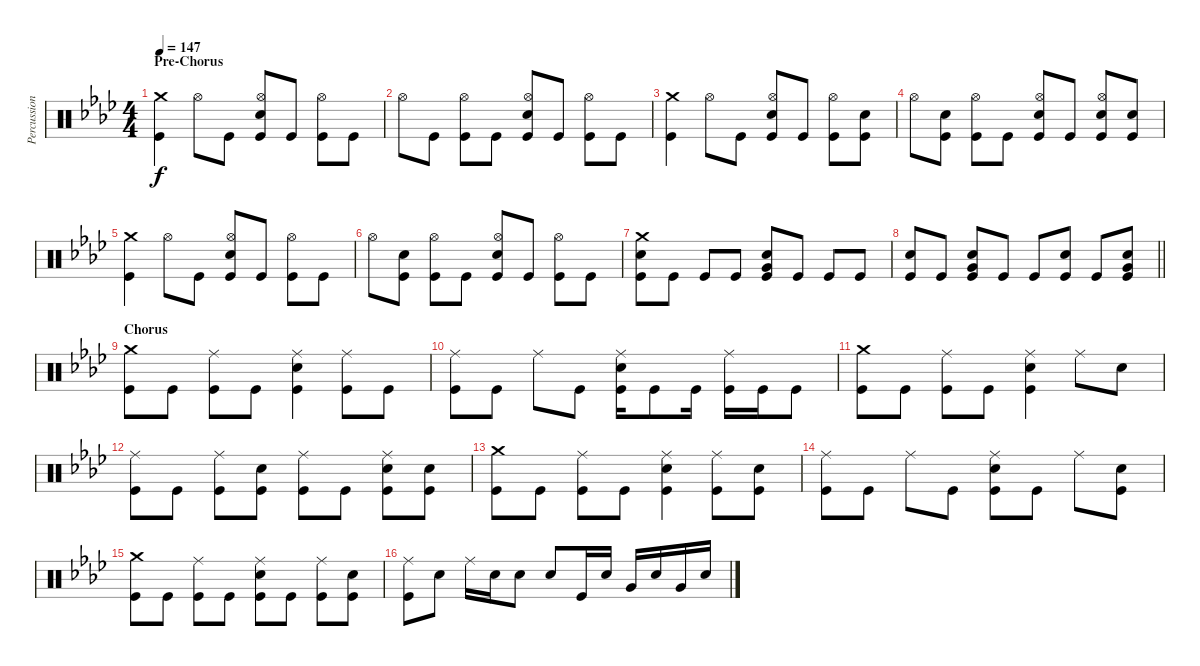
\track ("Percussion" "Percussion") {instrument percussion}
\staff {score}
\articulation defaults
\ts (4 4)
\section ("" "Pre-Chorus")
\tempo 147
\clef neutral
\ks ab
("Crash medium (hit)" "Kick (hit)").4{dy f} "Hi-Hat (open)".8 "Kick (hit)".8 ("Hi-Hat (open)" "Electric Snare (hit)" "Kick (hit)").8 "Kick (hit)".8 ("Hi-Hat (open)" "Kick (hit)").8 "Kick (hit)".8 |
"Hi-Hat (open)".8 "Kick (hit)".8 ("Hi-Hat (open)" "Kick (hit)").8 "Kick (hit)".8 ("Hi-Hat (open)" "Electric Snare (hit)" "Kick (hit)").8 "Kick (hit)".8 ("Hi-Hat (open)" "Kick (hit)").8 "Kick (hit)".8 |
("Crash medium (hit)" "Kick (hit)").4 "Hi-Hat (open)".8 "Kick (hit)".8 ("Hi-Hat (open)" "Electric Snare (hit)" "Kick (hit)").8 "Kick (hit)".8 ("Hi-Hat (open)" "Kick (hit)").8 ("Electric Snare (hit)" "Kick (hit)").8 |
"Hi-Hat (open)".8 ("Electric Snare (hit)" "Kick (hit)").8 ("Hi-Hat (open)" "Kick (hit)").8 "Kick (hit)".8 ("Hi-Hat (open)" "Electric Snare (hit)" "Kick (hit)").8 "Kick (hit)".8 ("Hi-Hat (open)" "Electric Snare (hit)" "Kick (hit)").8 ("Electric Snare (hit)" "Kick (hit)").8 |
("Crash medium (hit)" "Kick (hit)").4 "Hi-Hat (open)".8 "Kick (hit)".8 ("Hi-Hat (open)" "Electric Snare (hit)" "Kick (hit)").8 "Kick (hit)".8 ("Hi-Hat (open)" "Kick (hit)").8 "Kick (hit)".8 |
"Hi-Hat (open)".8 ("Electric Snare (hit)" "Kick (hit)").8 ("Hi-Hat (open)" "Kick (hit)").8 "Kick (hit)".8 ("Hi-Hat (open)" "Electric Snare (hit)" "Kick (hit)").8 "Kick (hit)".8 ("Hi-Hat (open)" "Kick (hit)").8 "Kick (hit)".8 |
("Crash medium (hit)" "Electric Snare (hit)" "Kick (hit)").8 "Kick (hit)".8 "Kick (hit)".8 "Kick (hit)".8 ("Very Low Tom (hit)" "Electric Snare (hit)" "Kick (hit)").8 "Kick (hit)".8 "Kick (hit)".8 "Kick (hit)".8 |
\barLineRight lightlight
("Electric Snare (hit)" "Kick (hit)").8 "Kick (hit)".8 ("Very Low Tom (hit)" "Electric Snare (hit)" "Kick (hit)").8 "Kick (hit)".8 "Kick (hit)".8 ("Electric Snare (hit)" "Kick (hit)").8 "Kick (hit)".8 ("Very Low Tom (hit)" "Electric Snare (hit)" "Kick (hit)").8 |
\section ("" "Chorus")
("Crash medium (hit)" "Kick (hit)").8 "Kick (hit)".8 ("Ride (middle)" "Kick (hit)").8 "Kick (hit)".8 ("Ride (middle)" "Electric Snare (hit)" "Kick (hit)").4 ("Ride (middle)" "Kick (hit)").8 "Kick (hit)".8 |
("Ride (middle)" "Kick (hit)").8 "Kick (hit)".8 "Ride (middle)".8 "Kick (hit)".8 ("Ride (middle)" "Electric Snare (hit)" "Kick (hit)").16 "Kick (hit)".8 "Kick (hit)".16 ("Ride (middle)" "Kick (hit)").16 "Kick (hit)".16 "Kick (hit)".8 |
("Crash medium (hit)" "Kick (hit)").8 "Kick (hit)".8 ("Ride (middle)" "Kick (hit)").8 "Kick (hit)".8 ("Ride (middle)" "Electric Snare (hit)" "Kick (hit)").4 "Ride (middle)".8 "Electric Snare (hit)".8 |
("Ride (middle)" "Kick (hit)").8 "Kick (hit)".8 ("Ride (middle)" "Kick (hit)").8 ("Electric Snare (hit)" "Kick (hit)").8 ("Ride (middle)" "Kick (hit)").8 "Kick (hit)".8 ("Ride (middle)" "Electric Snare (hit)" "Kick (hit)").8 ("Electric Snare (hit)" "Kick (hit)").8 |
("Crash medium (hit)" "Kick (hit)").8 "Kick (hit)".8 ("Ride (middle)" "Kick (hit)").8 "Kick (hit)".8 ("Ride (middle)" "Electric Snare (hit)" "Kick (hit)").4 ("Ride (middle)" "Kick (hit)").8 ("Electric Snare (hit)" "Kick (hit)").8 |
("Ride (middle)" "Kick (hit)").8 "Kick (hit)".8 "Ride (middle)".8 "Kick (hit)".8 ("Ride (middle)" "Electric Snare (hit)" "Kick (hit)").8 "Kick (hit)".8 "Ride (middle)".8 ("Electric Snare (hit)" "Kick (hit)").8 |
("Crash medium (hit)" "Kick (hit)").8 "Kick (hit)".8 ("Ride (middle)" "Kick (hit)").8 "Kick (hit)".8 ("Ride (middle)" "Electric Snare (hit)" "Kick (hit)").8 "Kick (hit)".8 ("Ride (middle)" "Kick (hit)").8 ("Electric Snare (hit)" "Kick (hit)").8 |
("Ride (middle)" "Kick (hit)").8 "Electric Snare (hit)".8 "Ride (middle)".16 "Electric Snare (hit)".16 "Electric Snare (hit)".8 "Electric Snare (hit)".8 "Kick (hit)".16 "Electric Snare (hit)".16 "Very Low Tom (hit)".16 "Electric Snare (hit)".16 "Very Low Tom (hit)".16 "Electric Snare (hit)".16
